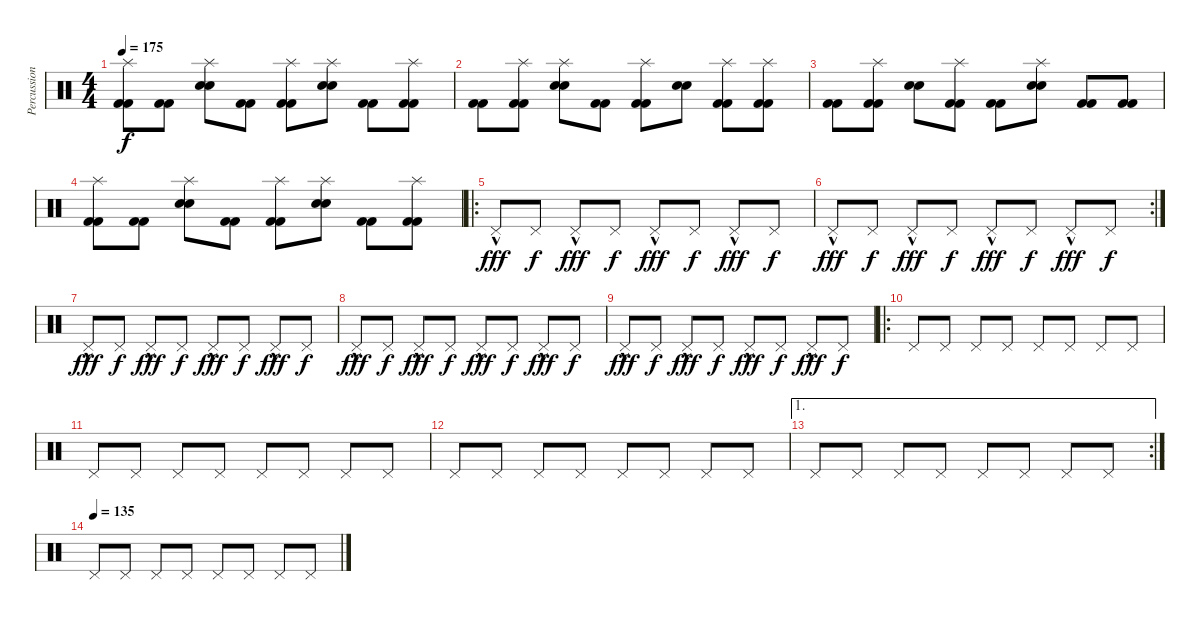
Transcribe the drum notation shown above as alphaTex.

\track ("Percussion" "Percussion") {instrument percussion}
\staff {score}
\articulation defaults
\ts (4 4)
\tempo 175
\clef neutral
\ks c
("Splash (hit)" "Kick (hit) 2" "Kick (hit) 2").8{dy f} ("Kick (hit) 2" "Kick (hit) 2").8 ("Splash (hit)" "Electric Snare (hit)" "Electric Snare (hit)").8 ("Kick (hit) 2" "Kick (hit) 2").8 ("Splash (hit)" "Kick (hit) 2" "Kick (hit) 2").8 ("Splash (hit)" "Electric Snare (hit)" "Electric Snare (hit)").8 ("Kick (hit) 2" "Kick (hit) 2").8 ("Splash (hit)" "Kick (hit) 2" "Kick (hit) 2").8 |
("Kick (hit) 2" "Kick (hit) 2").8 ("Splash (hit)" "Kick (hit) 2" "Kick (hit) 2").8 ("Splash (hit)" "Electric Snare (hit)" "Electric Snare (hit)").8 ("Kick (hit) 2" "Kick (hit) 2").8 ("Splash (hit)" "Kick (hit) 2" "Kick (hit) 2").8 ("Electric Snare (hit)" "Electric Snare (hit)").8 ("Splash (hit)" "Kick (hit) 2" "Kick (hit) 2").8 ("Splash (hit)" "Kick (hit) 2" "Kick (hit) 2").8 |
("Kick (hit) 2" "Kick (hit) 2").8 ("Splash (hit)" "Kick (hit) 2" "Kick (hit) 2").8 ("Electric Snare (hit)" "Electric Snare (hit)").8 ("Splash (hit)" "Kick (hit) 2" "Kick (hit) 2").8 ("Kick (hit) 2" "Kick (hit) 2").8 ("Splash (hit)" "Electric Snare (hit)" "Electric Snare (hit)").8 ("Kick (hit) 2" "Kick (hit) 2").8 ("Kick (hit) 2" "Kick (hit) 2").8 |
("Splash (hit)" "Kick (hit) 2" "Kick (hit) 2").8 ("Kick (hit) 2" "Kick (hit) 2").8 ("Splash (hit)" "Electric Snare (hit)" "Electric Snare (hit)").8 ("Kick (hit) 2" "Kick (hit) 2").8 ("Splash (hit)" "Kick (hit) 2" "Kick (hit) 2").8 ("Splash (hit)" "Electric Snare (hit)" "Electric Snare (hit)").8 ("Kick (hit) 2" "Kick (hit) 2").8 ("Splash (hit)" "Kick (hit) 2" "Kick (hit) 2").8 |
\ro "Pedal Hi-Hat (hit)"{hac}.8{dy fff} "Pedal Hi-Hat (hit)".8{dy f} "Pedal Hi-Hat (hit)"{hac}.8{dy fff} "Pedal Hi-Hat (hit)".8{dy f} "Pedal Hi-Hat (hit)"{hac}.8{dy fff} "Pedal Hi-Hat (hit)".8{dy f} "Pedal Hi-Hat (hit)"{hac}.8{dy fff} "Pedal Hi-Hat (hit)".8{dy f}
|
\rc 2 "Pedal Hi-Hat (hit)"{hac}.8{dy fff} "Pedal Hi-Hat (hit)".8{dy f} "Pedal Hi-Hat (hit)"{hac}.8{dy fff} "Pedal Hi-Hat (hit)".8{dy f} "Pedal Hi-Hat (hit)"{hac}.8{dy fff} "Pedal Hi-Hat (hit)".8{dy f} "Pedal Hi-Hat (hit)"{hac}.8{dy fff} "Pedal Hi-Hat (hit)".8{dy f}
|
"Pedal Hi-Hat (hit)"{hac}.8{dy fff} "Pedal Hi-Hat (hit)".8{dy f} "Pedal Hi-Hat (hit)"{hac}.8{dy fff} "Pedal Hi-Hat (hit)".8{dy f} "Pedal Hi-Hat (hit)"{hac}.8{dy fff} "Pedal Hi-Hat (hit)".8{dy f} "Pedal Hi-Hat (hit)"{hac}.8{dy fff} "Pedal Hi-Hat (hit)".8{dy f} |
"Pedal Hi-Hat (hit)"{hac}.8{dy fff} "Pedal Hi-Hat (hit)".8{dy f} "Pedal Hi-Hat (hit)"{hac}.8{dy fff} "Pedal Hi-Hat (hit)".8{dy f} "Pedal Hi-Hat (hit)"{hac}.8{dy fff} "Pedal Hi-Hat (hit)".8{dy f} "Pedal Hi-Hat (hit)"{hac}.8{dy fff} "Pedal Hi-Hat (hit)".8{dy f} |
"Pedal Hi-Hat (hit)"{hac}.8{dy fff} "Pedal Hi-Hat (hit)".8{dy f} "Pedal Hi-Hat (hit)"{hac}.8{dy fff} "Pedal Hi-Hat (hit)".8{dy f} "Pedal Hi-Hat (hit)"{hac}.8{dy fff} "Pedal Hi-Hat (hit)".8{dy f} "Pedal Hi-Hat (hit)"{hac}.8{dy fff} "Pedal Hi-Hat (hit)".8{dy f} |
\ro "Pedal Hi-Hat (hit)".8 "Pedal Hi-Hat (hit)".8 "Pedal Hi-Hat (hit)".8 "Pedal Hi-Hat (hit)".8 "Pedal Hi-Hat (hit)".8 "Pedal Hi-Hat (hit)".8 "Pedal Hi-Hat (hit)".8 "Pedal Hi-Hat (hit)".8
|
"Pedal Hi-Hat (hit)".8 "Pedal Hi-Hat (hit)".8 "Pedal Hi-Hat (hit)".8 "Pedal Hi-Hat (hit)".8 "Pedal Hi-Hat (hit)".8 "Pedal Hi-Hat (hit)".8 "Pedal Hi-Hat (hit)".8 "Pedal Hi-Hat (hit)".8 |
"Pedal Hi-Hat (hit)".8 "Pedal Hi-Hat (hit)".8 "Pedal Hi-Hat (hit)".8 "Pedal Hi-Hat (hit)".8 "Pedal Hi-Hat (hit)".8 "Pedal Hi-Hat (hit)".8 "Pedal Hi-Hat (hit)".8 "Pedal Hi-Hat (hit)".8 |
\ae 1
\rc 2 "Pedal Hi-Hat (hit)".8 "Pedal Hi-Hat (hit)".8 "Pedal Hi-Hat (hit)".8 "Pedal Hi-Hat (hit)".8 "Pedal Hi-Hat (hit)".8 "Pedal Hi-Hat (hit)".8 "Pedal Hi-Hat (hit)".8 "Pedal Hi-Hat (hit)".8
|
\tempo (135)
"Pedal Hi-Hat (hit)".8 "Pedal Hi-Hat (hit)".8 "Pedal Hi-Hat (hit)".8 "Pedal Hi-Hat (hit)".8 "Pedal Hi-Hat (hit)".8 "Pedal Hi-Hat (hit)".8 "Pedal Hi-Hat (hit)".8 "Pedal Hi-Hat (hit)".8
